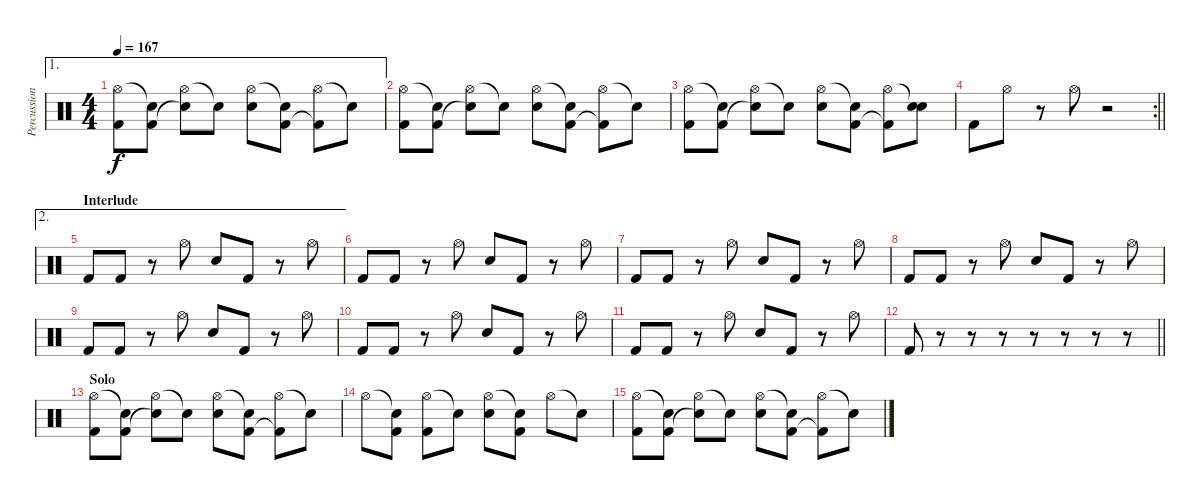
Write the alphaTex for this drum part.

\track ("Percussion" "Percussion") {instrument percussion}
\staff {score}
\articulation defaults
\ae 1
\ts (4 4)
\tempo 167
\clef neutral
\ks c
("Hi-Hat (open)" "Kick (hit) 2").8{dy f} ("Snare (hit)"{t} "Kick (hit) 2").8 ("Hi-Hat (open)" "Snare (hit)"{t}).8 "Snare (hit)"{t}.8 ("Hi-Hat (open)" "Electric Snare (hit)").8 ("Snare (hit)"{t} "Kick (hit) 2").8 ("Hi-Hat (open)" "Kick (hit) 2"{t}).8 "Snare (hit)"{t}.8 |
("Hi-Hat (open)" "Kick (hit) 2").8 ("Snare (hit)"{t} "Kick (hit) 2").8 ("Hi-Hat (open)" "Snare (hit)"{t}).8 "Snare (hit)"{t}.8 ("Hi-Hat (open)" "Electric Snare (hit)").8 ("Snare (hit)"{t} "Kick (hit) 2").8 ("Hi-Hat (open)" "Kick (hit) 2"{t}).8 "Snare (hit)"{t}.8 |
("Hi-Hat (open)" "Kick (hit) 2").8 ("Snare (hit)"{t} "Kick (hit) 2").8 ("Hi-Hat (open)" "Snare (hit)"{t}).8 "Snare (hit)"{t}.8 ("Hi-Hat (open)" "Electric Snare (hit)").8 ("Snare (hit)"{t} "Kick (hit) 2").8 ("Hi-Hat (open)" "Kick (hit) 2"{t}).8 ("Snare (hit)"{t} "Electric Snare (hit)").8 |
\rc 2
\barLineRight lightlight "Kick (hit) 2".8 "Hi-Hat (open)".8
r.8 "Hi-Hat (open)".8 r.2 |
\ae 2
\section ("" "Interlude")
"Kick (hit) 2".8 "Kick (hit) 2".8 r.8 "Hi-Hat (open)".8 "Electric Snare (hit)".8 "Kick (hit) 2".8 r.8 "Hi-Hat (open)".8 |
"Kick (hit) 2".8 "Kick (hit) 2".8 r.8 "Hi-Hat (open)".8 "Electric Snare (hit)".8 "Kick (hit) 2".8 r.8 "Hi-Hat (open)".8 |
"Kick (hit) 2".8 "Kick (hit) 2".8 r.8 "Hi-Hat (open)".8 "Electric Snare (hit)".8 "Kick (hit) 2".8 r.8 "Hi-Hat (open)".8 |
"Kick (hit) 2".8 "Kick (hit) 2".8 r.8 "Hi-Hat (open)".8 "Electric Snare (hit)".8 "Kick (hit) 2".8 r.8 "Hi-Hat (open)".8 |
"Kick (hit) 2".8 "Kick (hit) 2".8 r.8 "Hi-Hat (open)".8 "Electric Snare (hit)".8 "Kick (hit) 2".8 r.8 "Hi-Hat (open)".8 |
"Kick (hit) 2".8 "Kick (hit) 2".8 r.8 "Hi-Hat (open)".8 "Electric Snare (hit)".8 "Kick (hit) 2".8 r.8 "Hi-Hat (open)".8 |
"Kick (hit) 2".8 "Kick (hit) 2".8 r.8 "Hi-Hat (open)".8 "Electric Snare (hit)".8 "Kick (hit) 2".8 r.8 "Hi-Hat (open)".8 |
\barLineRight lightlight "Kick (hit) 2".8
r.8 r.8 r.8 r.8 r.8 r.8 r.8 |
\section ("" "Solo")
("Hi-Hat (open)" "Kick (hit) 2").8 ("Snare (hit)"{t} "Kick (hit) 2").8 ("Hi-Hat (open)" "Snare (hit)"{t}).8 "Snare (hit)"{t}.8 ("Hi-Hat (open)" "Electric Snare (hit)").8 ("Snare (hit)"{t} "Kick (hit) 2").8 ("Hi-Hat (open)" "Kick (hit) 2"{t}).8 "Snare (hit)"{t}.8 |
"Hi-Hat (open)".8 ("Snare (hit)"{t} "Kick (hit) 2").8 ("Hi-Hat (open)" "Kick (hit) 2").8 "Snare (hit)"{t}.8 ("Hi-Hat (open)" "Electric Snare (hit)").8 ("Snare (hit)"{t} "Kick (hit) 2").8 "Hi-Hat (open)".8 "Snare (hit)"{t}.8 |
("Hi-Hat (open)" "Kick (hit) 2").8 ("Snare (hit)"{t} "Kick (hit) 2").8 ("Hi-Hat (open)" "Snare (hit)"{t}).8 "Snare (hit)"{t}.8 ("Hi-Hat (open)" "Electric Snare (hit)").8 ("Snare (hit)"{t} "Kick (hit) 2").8 ("Hi-Hat (open)" "Kick (hit) 2"{t}).8 "Snare (hit)"{t}.8
